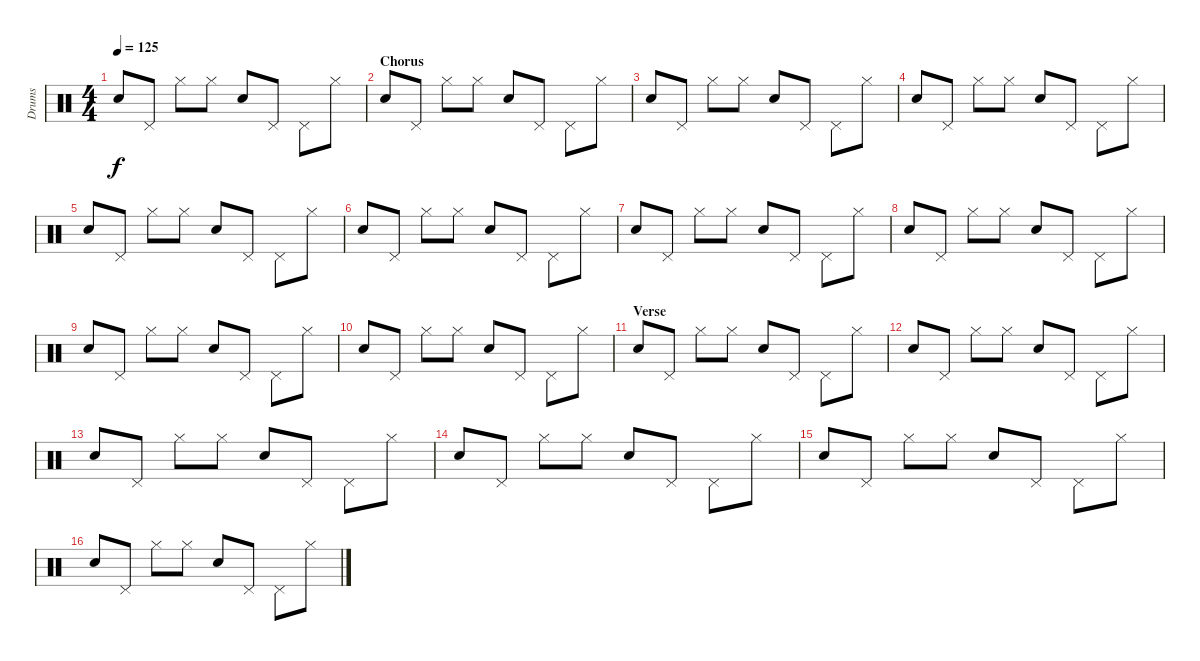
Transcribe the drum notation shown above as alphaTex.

\track ("Drums" "Drums") {instrument percussion}
\staff {score}
\articulation defaults
\ts (4 4)
\tempo 125
\clef neutral
\ks c "Electric Snare (hit)".8{dy f} "Pedal Hi-Hat (hit)".8 "Hi-Hat (closed)".8 "Hi-Hat (closed)".8 "Electric Snare (hit)".8 "Pedal Hi-Hat (hit)".8 "Pedal Hi-Hat (hit)".8 "Hi-Hat (closed)".8
|
\section ("" "Chorus")
"Electric Snare (hit)".8 "Pedal Hi-Hat (hit)".8 "Hi-Hat (closed)".8 "Hi-Hat (closed)".8 "Electric Snare (hit)".8 "Pedal Hi-Hat (hit)".8 "Pedal Hi-Hat (hit)".8 "Hi-Hat (closed)".8 |
"Electric Snare (hit)".8 "Pedal Hi-Hat (hit)".8 "Hi-Hat (closed)".8 "Hi-Hat (closed)".8 "Electric Snare (hit)".8 "Pedal Hi-Hat (hit)".8 "Pedal Hi-Hat (hit)".8 "Hi-Hat (closed)".8 |
"Electric Snare (hit)".8 "Pedal Hi-Hat (hit)".8 "Hi-Hat (closed)".8 "Hi-Hat (closed)".8 "Electric Snare (hit)".8 "Pedal Hi-Hat (hit)".8 "Pedal Hi-Hat (hit)".8 "Hi-Hat (closed)".8 |
"Electric Snare (hit)".8 "Pedal Hi-Hat (hit)".8 "Hi-Hat (closed)".8 "Hi-Hat (closed)".8 "Electric Snare (hit)".8 "Pedal Hi-Hat (hit)".8 "Pedal Hi-Hat (hit)".8 "Hi-Hat (closed)".8 |
"Electric Snare (hit)".8 "Pedal Hi-Hat (hit)".8 "Hi-Hat (closed)".8 "Hi-Hat (closed)".8 "Electric Snare (hit)".8 "Pedal Hi-Hat (hit)".8 "Pedal Hi-Hat (hit)".8 "Hi-Hat (closed)".8 |
"Electric Snare (hit)".8 "Pedal Hi-Hat (hit)".8 "Hi-Hat (closed)".8 "Hi-Hat (closed)".8 "Electric Snare (hit)".8 "Pedal Hi-Hat (hit)".8 "Pedal Hi-Hat (hit)".8 "Hi-Hat (closed)".8 |
"Electric Snare (hit)".8 "Pedal Hi-Hat (hit)".8 "Hi-Hat (closed)".8 "Hi-Hat (closed)".8 "Electric Snare (hit)".8 "Pedal Hi-Hat (hit)".8 "Pedal Hi-Hat (hit)".8 "Hi-Hat (closed)".8 |
"Electric Snare (hit)".8 "Pedal Hi-Hat (hit)".8 "Hi-Hat (closed)".8 "Hi-Hat (closed)".8 "Electric Snare (hit)".8 "Pedal Hi-Hat (hit)".8 "Pedal Hi-Hat (hit)".8 "Hi-Hat (closed)".8 |
"Electric Snare (hit)".8 "Pedal Hi-Hat (hit)".8 "Hi-Hat (closed)".8 "Hi-Hat (closed)".8 "Electric Snare (hit)".8 "Pedal Hi-Hat (hit)".8 "Pedal Hi-Hat (hit)".8 "Hi-Hat (closed)".8 |
\section ("" "Verse")
"Electric Snare (hit)".8 "Pedal Hi-Hat (hit)".8 "Hi-Hat (closed)".8 "Hi-Hat (closed)".8 "Electric Snare (hit)".8 "Pedal Hi-Hat (hit)".8 "Pedal Hi-Hat (hit)".8 "Hi-Hat (closed)".8 |
"Electric Snare (hit)".8 "Pedal Hi-Hat (hit)".8 "Hi-Hat (closed)".8 "Hi-Hat (closed)".8 "Electric Snare (hit)".8 "Pedal Hi-Hat (hit)".8 "Pedal Hi-Hat (hit)".8 "Hi-Hat (closed)".8 |
"Electric Snare (hit)".8 "Pedal Hi-Hat (hit)".8 "Hi-Hat (closed)".8 "Hi-Hat (closed)".8 "Electric Snare (hit)".8 "Pedal Hi-Hat (hit)".8 "Pedal Hi-Hat (hit)".8 "Hi-Hat (closed)".8 |
"Electric Snare (hit)".8 "Pedal Hi-Hat (hit)".8 "Hi-Hat (closed)".8 "Hi-Hat (closed)".8 "Electric Snare (hit)".8 "Pedal Hi-Hat (hit)".8 "Pedal Hi-Hat (hit)".8 "Hi-Hat (closed)".8 |
"Electric Snare (hit)".8 "Pedal Hi-Hat (hit)".8 "Hi-Hat (closed)".8 "Hi-Hat (closed)".8 "Electric Snare (hit)".8 "Pedal Hi-Hat (hit)".8 "Pedal Hi-Hat (hit)".8 "Hi-Hat (closed)".8 |
"Electric Snare (hit)".8 "Pedal Hi-Hat (hit)".8 "Hi-Hat (closed)".8 "Hi-Hat (closed)".8 "Electric Snare (hit)".8 "Pedal Hi-Hat (hit)".8 "Pedal Hi-Hat (hit)".8 "Hi-Hat (closed)".8
